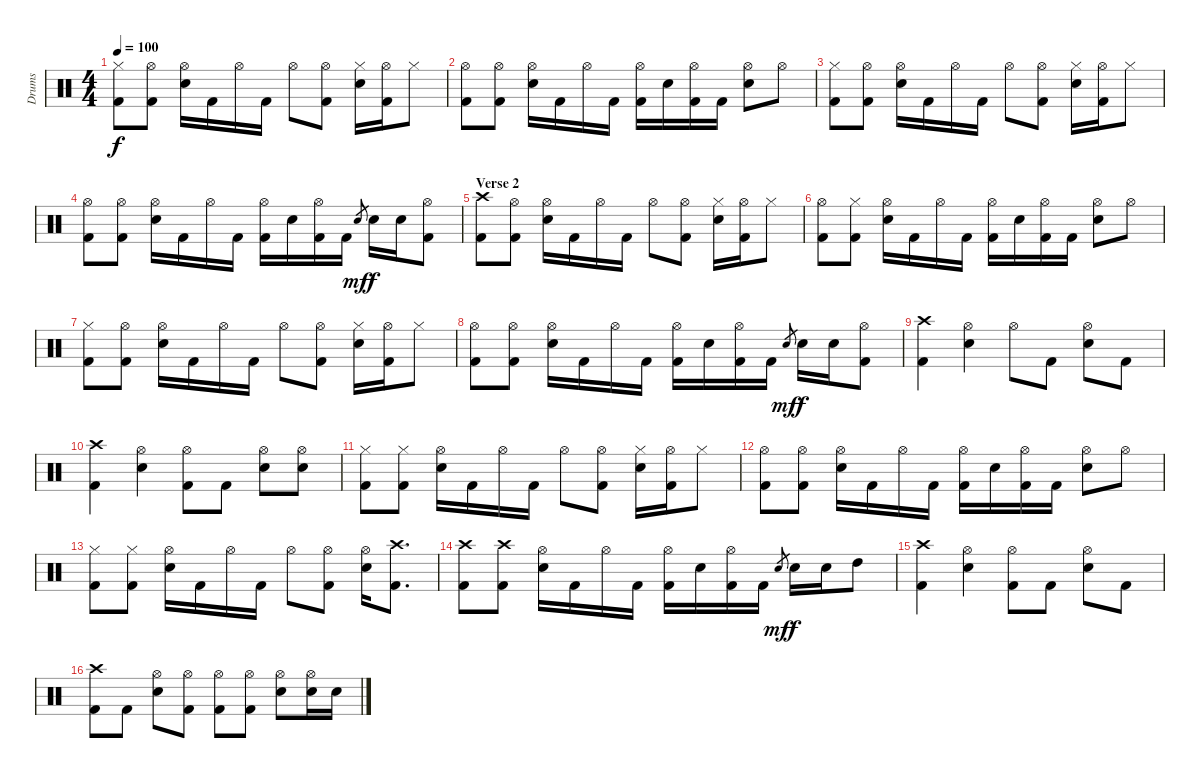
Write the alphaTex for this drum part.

\track ("Drums" "Drums") {instrument percussion}
\staff {score}
\articulation defaults
\ts (4 4)
\tempo 100
\clef neutral
\ks c
("Hi-Hat (closed)" "Kick (hit) 2").8{dy f} ("Hi-Hat (open)" "Kick (hit) 2").8 ("Hi-Hat (open)" "Electric Snare (hit)").16 "Kick (hit) 2".16 "Hi-Hat (open)".16 "Kick (hit) 2".16 "Hi-Hat (open)".8 ("Hi-Hat (open)" "Kick (hit) 2").8 ("Hi-Hat (closed)" "Electric Snare (hit)").16 ("Hi-Hat (open)" "Kick (hit) 2").16 "Hi-Hat (closed)".8 |
("Hi-Hat (open)" "Kick (hit) 2").8 ("Hi-Hat (open)" "Kick (hit) 2").8 ("Hi-Hat (open)" "Electric Snare (hit)").16 "Kick (hit) 2".16 "Hi-Hat (open)".16 "Kick (hit) 2".16 ("Hi-Hat (open)" "Kick (hit) 2").16 "Electric Snare (hit)".16 ("Hi-Hat (open)" "Kick (hit) 2").16 "Kick (hit) 2".16 ("Hi-Hat (open)" "Electric Snare (hit)").8 "Hi-Hat (open)".8 |
("Hi-Hat (closed)" "Kick (hit) 2").8 ("Hi-Hat (open)" "Kick (hit) 2").8 ("Hi-Hat (open)" "Electric Snare (hit)").16 "Kick (hit) 2".16 "Hi-Hat (open)".16 "Kick (hit) 2".16 "Hi-Hat (open)".8 ("Hi-Hat (open)" "Kick (hit) 2").8 ("Hi-Hat (closed)" "Electric Snare (hit)").16 ("Hi-Hat (open)" "Kick (hit) 2").16 "Hi-Hat (closed)".8 |
("Hi-Hat (open)" "Kick (hit) 2").8 ("Hi-Hat (open)" "Kick (hit) 2").8 ("Hi-Hat (open)" "Electric Snare (hit)").16 "Kick (hit) 2".16 "Hi-Hat (open)".16 "Kick (hit) 2".16 ("Hi-Hat (open)" "Kick (hit) 2").16 "Electric Snare (hit)".16 ("Hi-Hat (open)" "Kick (hit) 2").16 "Kick (hit) 2".16 "Electric Snare (hit)".8{gr dy mf} "Electric Snare (hit)".16{dy f} "Electric Snare (hit)".16 ("Hi-Hat (open)" "Kick (hit) 2").8 |
\section ("" "Verse 2")
("Crash high (hit)" "Kick (hit) 2").8 ("Hi-Hat (open)" "Kick (hit) 2").8 ("Hi-Hat (open)" "Electric Snare (hit)").16 "Kick (hit) 2".16 "Hi-Hat (open)".16 "Kick (hit) 2".16 "Hi-Hat (open)".8 ("Hi-Hat (open)" "Kick (hit) 2").8 ("Hi-Hat (closed)" "Electric Snare (hit)").16 ("Hi-Hat (open)" "Kick (hit) 2").16 "Hi-Hat (closed)".8 |
("Hi-Hat (open)" "Kick (hit) 2").8 ("Hi-Hat (closed)" "Kick (hit) 2").8 ("Hi-Hat (open)" "Electric Snare (hit)").16 "Kick (hit) 2".16 "Hi-Hat (open)".16 "Kick (hit) 2".16 ("Hi-Hat (open)" "Kick (hit) 2").16 "Electric Snare (hit)".16 ("Hi-Hat (open)" "Kick (hit) 2").16 "Kick (hit) 2".16 ("Hi-Hat (open)" "Electric Snare (hit)").8 "Hi-Hat (open)".8 |
("Hi-Hat (closed)" "Kick (hit) 2").8 ("Hi-Hat (open)" "Kick (hit) 2").8 ("Hi-Hat (open)" "Electric Snare (hit)").16 "Kick (hit) 2".16 "Hi-Hat (open)".16 "Kick (hit) 2".16 "Hi-Hat (open)".8 ("Hi-Hat (open)" "Kick (hit) 2").8 ("Hi-Hat (closed)" "Electric Snare (hit)").16 ("Hi-Hat (open)" "Kick (hit) 2").16 "Hi-Hat (closed)".8 |
("Hi-Hat (open)" "Kick (hit) 2").8 ("Hi-Hat (open)" "Kick (hit) 2").8 ("Hi-Hat (open)" "Electric Snare (hit)").16 "Kick (hit) 2".16 "Hi-Hat (open)".16 "Kick (hit) 2".16 ("Hi-Hat (open)" "Kick (hit) 2").16 "Electric Snare (hit)".16 ("Hi-Hat (open)" "Kick (hit) 2").16 "Kick (hit) 2".16 "Electric Snare (hit)".8{gr dy mf} "Electric Snare (hit)".16{dy f} "Electric Snare (hit)".16 ("Hi-Hat (open)" "Kick (hit) 2").8 |
("Crash high (hit)" "Kick (hit) 2").4 ("Hi-Hat (open)" "Electric Snare (hit)").4 "Hi-Hat (open)".8 "Kick (hit) 2".8 ("Hi-Hat (open)" "Electric Snare (hit)").8 "Kick (hit) 2".8 |
("Crash high (hit)" "Kick (hit) 2").4 ("Hi-Hat (open)" "Electric Snare (hit)").4 ("Hi-Hat (open)" "Kick (hit) 2").8 "Kick (hit) 2".8 ("Hi-Hat (open)" "Electric Snare (hit)").8 ("Hi-Hat (open)" "Electric Snare (hit)").8 |
("Hi-Hat (closed)" "Kick (hit) 2").8 ("Hi-Hat (closed)" "Kick (hit) 2").8 ("Hi-Hat (open)" "Electric Snare (hit)").16 "Kick (hit) 2".16 "Hi-Hat (open)".16 "Kick (hit) 2".16 "Hi-Hat (open)".8 ("Hi-Hat (open)" "Kick (hit) 2").8 ("Hi-Hat (closed)" "Electric Snare (hit)").16 ("Hi-Hat (open)" "Kick (hit) 2").16 "Hi-Hat (closed)".8 |
("Hi-Hat (open)" "Kick (hit) 2").8 ("Hi-Hat (open)" "Kick (hit) 2").8 ("Hi-Hat (open)" "Electric Snare (hit)").16 "Kick (hit) 2".16 "Hi-Hat (open)".16 "Kick (hit) 2".16 ("Hi-Hat (open)" "Kick (hit) 2").16 "Electric Snare (hit)".16 ("Hi-Hat (open)" "Kick (hit) 2").16 "Kick (hit) 2".16 ("Hi-Hat (open)" "Electric Snare (hit)").8 "Hi-Hat (open)".8 |
("Hi-Hat (closed)" "Kick (hit) 2").8 ("Hi-Hat (closed)" "Kick (hit) 2").8 ("Hi-Hat (open)" "Electric Snare (hit)").16 "Kick (hit) 2".16 "Hi-Hat (open)".16 "Kick (hit) 2".16 "Hi-Hat (open)".8 ("Hi-Hat (open)" "Kick (hit) 2").8 ("Hi-Hat (open)" "Electric Snare (hit)").16 ("Crash high (hit)" "Kick (hit) 2").8{d} |
("Crash high (hit)" "Kick (hit) 2").8 ("Crash high (hit)" "Kick (hit) 2").8 ("Hi-Hat (open)" "Electric Snare (hit)").16 "Kick (hit) 2".16 "Hi-Hat (open)".16 "Kick (hit) 2".16 ("Hi-Hat (open)" "Kick (hit) 2").16 "Electric Snare (hit)".16 ("Hi-Hat (open)" "Kick (hit) 2").16 "Kick (hit) 2".16 "Electric Snare (hit)".8{gr dy mf} "Electric Snare (hit)".16{dy f} "Electric Snare (hit)".16 "High Tom (hit)".8 |
("Crash high (hit)" "Kick (hit) 2").4 ("Hi-Hat (open)" "Electric Snare (hit)").4 ("Hi-Hat (open)" "Kick (hit) 2").8 "Kick (hit) 2".8 ("Hi-Hat (open)" "Electric Snare (hit)").8 "Kick (hit) 2".8 |
("Crash high (hit)" "Kick (hit) 2").8 "Kick (hit) 2".8 ("Hi-Hat (open)" "Electric Snare (hit)").8 ("Hi-Hat (open)" "Kick (hit) 2").8 ("Hi-Hat (open)" "Kick (hit) 2").8 ("Hi-Hat (open)" "Kick (hit) 2").8 ("Hi-Hat (open)" "Electric Snare (hit)").8 ("Hi-Hat (open)" "Electric Snare (hit)").16 "Electric Snare (hit)".16
